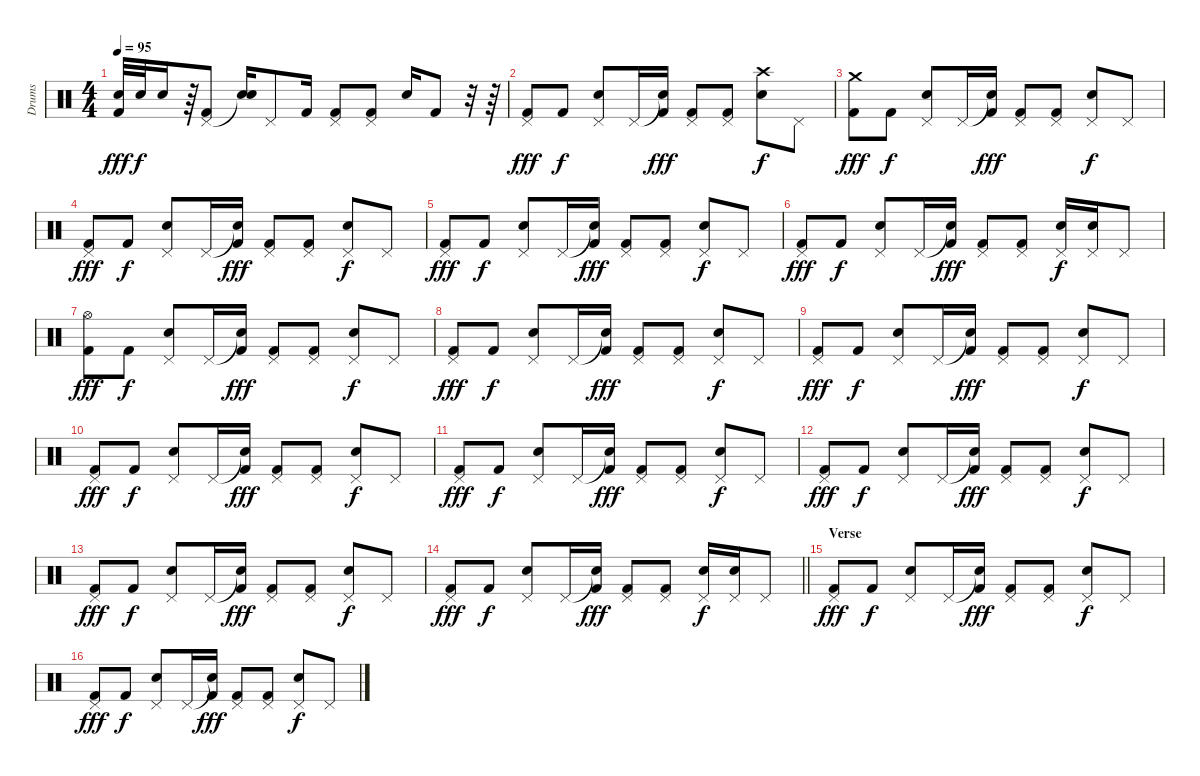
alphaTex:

\track ("Drums" "Drums") {instrument percussion}
\staff {score}
\articulation defaults
\ts (4 4)
\tempo 95
\clef neutral
\ks c
("Snare (hit) 2" "Kick (hit) 2").32{dy fff} "Snare (hit) 2".32{dy f} "Snare (hit) 2".16 r.64 ("Pedal Hi-Hat (hit)" "Kick (hit) 2").8 ("Snare (hit)"{t} "Snare (hit) 2").16 "Pedal Hi-Hat (hit)".8 "Kick (hit) 2".16 ("Pedal Hi-Hat (hit)" "Kick (hit) 2").8 ("Pedal Hi-Hat (hit)" "Kick (hit) 2").8 "Snare (hit) 2".16 "Kick (hit) 2".8 r.32 r.64 |
("Pedal Hi-Hat (hit)" "Kick (hit) 2").8{dy fff} "Kick (hit) 2".8{dy f} ("Pedal Hi-Hat (hit)" "Snare (hit) 2").8 "Pedal Hi-Hat (hit)".16 ("Snare (hit)"{t} "Kick (hit) 2").16{dy fff} ("Pedal Hi-Hat (hit)" "Kick (hit) 2").8 ("Pedal Hi-Hat (hit)" "Kick (hit) 2").8 ("Crash high (hit)" "Snare (hit) 2").8{dy f} "Pedal Hi-Hat (hit)".8 |
("Crash medium (hit)" "Kick (hit) 2").8{dy fff} "Kick (hit) 2".8{dy f} ("Pedal Hi-Hat (hit)" "Snare (hit) 2").8 "Pedal Hi-Hat (hit)".16 ("Snare (hit)"{t} "Kick (hit) 2").16{dy fff} ("Pedal Hi-Hat (hit)" "Kick (hit) 2").8 ("Pedal Hi-Hat (hit)" "Kick (hit) 2").8 ("Pedal Hi-Hat (hit)" "Snare (hit) 2").8{dy f} "Pedal Hi-Hat (hit)".8 |
("Pedal Hi-Hat (hit)" "Kick (hit) 2").8{dy fff} "Kick (hit) 2".8{dy f} ("Pedal Hi-Hat (hit)" "Snare (hit) 2").8 "Pedal Hi-Hat (hit)".16 ("Snare (hit)"{t} "Kick (hit) 2").16{dy fff} ("Pedal Hi-Hat (hit)" "Kick (hit) 2").8 ("Pedal Hi-Hat (hit)" "Kick (hit) 2").8 ("Pedal Hi-Hat (hit)" "Snare (hit) 2").8{dy f} "Pedal Hi-Hat (hit)".8 |
("Pedal Hi-Hat (hit)" "Kick (hit) 2").8{dy fff} "Kick (hit) 2".8{dy f} ("Pedal Hi-Hat (hit)" "Snare (hit) 2").8 "Pedal Hi-Hat (hit)".16 ("Snare (hit)"{t} "Kick (hit) 2").16{dy fff} ("Pedal Hi-Hat (hit)" "Kick (hit) 2").8 ("Pedal Hi-Hat (hit)" "Kick (hit) 2").8 ("Pedal Hi-Hat (hit)" "Snare (hit) 2").8{dy f} "Pedal Hi-Hat (hit)".8 |
("Pedal Hi-Hat (hit)" "Kick (hit) 2").8{dy fff} "Kick (hit) 2".8{dy f} ("Pedal Hi-Hat (hit)" "Snare (hit) 2").8 "Pedal Hi-Hat (hit)".16 ("Snare (hit)"{t} "Kick (hit) 2").16{dy fff} ("Pedal Hi-Hat (hit)" "Kick (hit) 2").8 ("Pedal Hi-Hat (hit)" "Kick (hit) 2").8 ("Pedal Hi-Hat (hit)" "Snare (hit) 2").16{dy f} ("Pedal Hi-Hat (hit)" "Snare (hit) 2").16 "Pedal Hi-Hat (hit)".8 |
("Hi-Hat (open)" "Kick (hit) 2").8{dy fff} "Kick (hit) 2".8{dy f} ("Pedal Hi-Hat (hit)" "Snare (hit) 2").8 "Pedal Hi-Hat (hit)".16 ("Snare (hit)"{t} "Kick (hit) 2").16{dy fff} ("Pedal Hi-Hat (hit)" "Kick (hit) 2").8 ("Pedal Hi-Hat (hit)" "Kick (hit) 2").8 ("Pedal Hi-Hat (hit)" "Snare (hit) 2").8{dy f} "Pedal Hi-Hat (hit)".8 |
("Pedal Hi-Hat (hit)" "Kick (hit) 2").8{dy fff} "Kick (hit) 2".8{dy f} ("Pedal Hi-Hat (hit)" "Snare (hit) 2").8 "Pedal Hi-Hat (hit)".16 ("Snare (hit)"{t} "Kick (hit) 2").16{dy fff} ("Pedal Hi-Hat (hit)" "Kick (hit) 2").8 ("Pedal Hi-Hat (hit)" "Kick (hit) 2").8 ("Pedal Hi-Hat (hit)" "Snare (hit) 2").8{dy f} "Pedal Hi-Hat (hit)".8 |
("Pedal Hi-Hat (hit)" "Kick (hit) 2").8{dy fff} "Kick (hit) 2".8{dy f} ("Pedal Hi-Hat (hit)" "Snare (hit) 2").8 "Pedal Hi-Hat (hit)".16 ("Snare (hit)"{t} "Kick (hit) 2").16{dy fff} ("Pedal Hi-Hat (hit)" "Kick (hit) 2").8 ("Pedal Hi-Hat (hit)" "Kick (hit) 2").8 ("Pedal Hi-Hat (hit)" "Snare (hit) 2").8{dy f} "Pedal Hi-Hat (hit)".8 |
("Pedal Hi-Hat (hit)" "Kick (hit) 2").8{dy fff} "Kick (hit) 2".8{dy f} ("Pedal Hi-Hat (hit)" "Snare (hit) 2").8 "Pedal Hi-Hat (hit)".16 ("Snare (hit)"{t} "Kick (hit) 2").16{dy fff} ("Pedal Hi-Hat (hit)" "Kick (hit) 2").8 ("Pedal Hi-Hat (hit)" "Kick (hit) 2").8 ("Pedal Hi-Hat (hit)" "Snare (hit) 2").8{dy f} "Pedal Hi-Hat (hit)".8 |
("Pedal Hi-Hat (hit)" "Kick (hit) 2").8{dy fff} "Kick (hit) 2".8{dy f} ("Pedal Hi-Hat (hit)" "Snare (hit) 2").8 "Pedal Hi-Hat (hit)".16 ("Snare (hit)"{t} "Kick (hit) 2").16{dy fff} ("Pedal Hi-Hat (hit)" "Kick (hit) 2").8 ("Pedal Hi-Hat (hit)" "Kick (hit) 2").8 ("Pedal Hi-Hat (hit)" "Snare (hit) 2").8{dy f} "Pedal Hi-Hat (hit)".8 |
("Pedal Hi-Hat (hit)" "Kick (hit) 2").8{dy fff} "Kick (hit) 2".8{dy f} ("Pedal Hi-Hat (hit)" "Snare (hit) 2").8 "Pedal Hi-Hat (hit)".16 ("Snare (hit)"{t} "Kick (hit) 2").16{dy fff} ("Pedal Hi-Hat (hit)" "Kick (hit) 2").8 ("Pedal Hi-Hat (hit)" "Kick (hit) 2").8 ("Pedal Hi-Hat (hit)" "Snare (hit) 2").8{dy f} "Pedal Hi-Hat (hit)".8 |
("Pedal Hi-Hat (hit)" "Kick (hit) 2").8{dy fff} "Kick (hit) 2".8{dy f} ("Pedal Hi-Hat (hit)" "Snare (hit) 2").8 "Pedal Hi-Hat (hit)".16 ("Snare (hit)"{t} "Kick (hit) 2").16{dy fff} ("Pedal Hi-Hat (hit)" "Kick (hit) 2").8 ("Pedal Hi-Hat (hit)" "Kick (hit) 2").8 ("Pedal Hi-Hat (hit)" "Snare (hit) 2").8{dy f} "Pedal Hi-Hat (hit)".8 |
\barLineRight lightlight
("Pedal Hi-Hat (hit)" "Kick (hit) 2").8{dy fff} "Kick (hit) 2".8{dy f} ("Pedal Hi-Hat (hit)" "Snare (hit) 2").8 "Pedal Hi-Hat (hit)".16 ("Snare (hit)"{t} "Kick (hit) 2").16{dy fff} ("Pedal Hi-Hat (hit)" "Kick (hit) 2").8 ("Pedal Hi-Hat (hit)" "Kick (hit) 2").8 ("Pedal Hi-Hat (hit)" "Snare (hit) 2").16{dy f} ("Pedal Hi-Hat (hit)" "Snare (hit) 2").16 "Pedal Hi-Hat (hit)".8 |
\section ("" "Verse")
("Pedal Hi-Hat (hit)" "Kick (hit) 2").8{dy fff} "Kick (hit) 2".8{dy f} ("Pedal Hi-Hat (hit)" "Snare (hit) 2").8 "Pedal Hi-Hat (hit)".16 ("Snare (hit)"{t} "Kick (hit) 2").16{dy fff} ("Pedal Hi-Hat (hit)" "Kick (hit) 2").8 ("Pedal Hi-Hat (hit)" "Kick (hit) 2").8 ("Pedal Hi-Hat (hit)" "Snare (hit) 2").8{dy f} "Pedal Hi-Hat (hit)".8 |
("Pedal Hi-Hat (hit)" "Kick (hit) 2").8{dy fff} "Kick (hit) 2".8{dy f} ("Pedal Hi-Hat (hit)" "Snare (hit) 2").8 "Pedal Hi-Hat (hit)".16 ("Snare (hit)"{t} "Kick (hit) 2").16{dy fff} ("Pedal Hi-Hat (hit)" "Kick (hit) 2").8 ("Pedal Hi-Hat (hit)" "Kick (hit) 2").8 ("Pedal Hi-Hat (hit)" "Snare (hit) 2").8{dy f} "Pedal Hi-Hat (hit)".8
